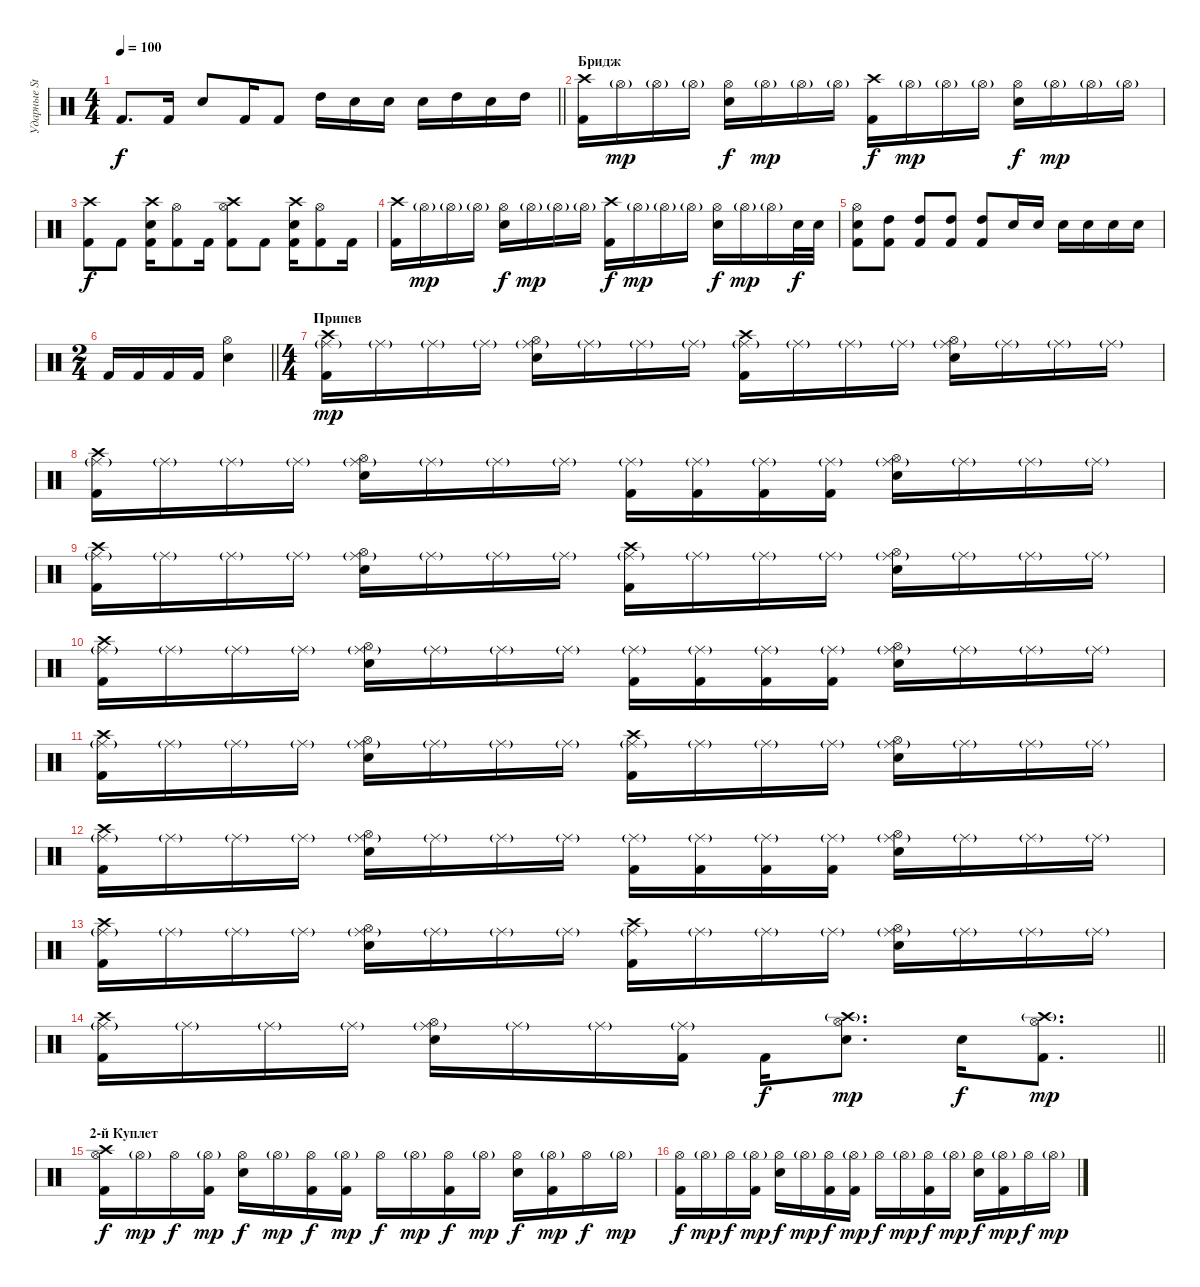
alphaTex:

\track ("Ударные Stewart" "Ударные St") {instrument percussion}
\staff {score}
\articulation defaults
\ts (4 4)
\tempo 100
\clef neutral
\barLineRight lightlight
\ks c "Kick (hit) 2".8{d dy f} "Kick (hit) 2".16 "Electric Snare (hit)".8 "Kick (hit) 2".16 "Kick (hit) 2".8 "High Tom (hit)".16 "Electric Snare (hit)".16 "Electric Snare (hit)".16 "Electric Snare (hit)".16 "High Tom (hit)".16 "Electric Snare (hit)".16 "High Tom (hit)".16
|
\section ("" "Бридж")
("Crash high (hit)" "Kick (hit) 2").16 "Hi-Hat (open)"{g}.16{dy mp} "Hi-Hat (open)"{g}.16 "Hi-Hat (open)"{g}.16 ("Hi-Hat (open)" "Electric Snare (hit)").16{dy f} "Hi-Hat (open)"{g}.16{dy mp} "Hi-Hat (open)"{g}.16 "Hi-Hat (open)"{g}.16 ("Crash high (hit)" "Kick (hit) 2").16{dy f} "Hi-Hat (open)"{g}.16{dy mp} "Hi-Hat (open)"{g}.16 "Hi-Hat (open)"{g}.16 ("Hi-Hat (open)" "Electric Snare (hit)").16{dy f} "Hi-Hat (open)"{g}.16{dy mp} "Hi-Hat (open)"{g}.16 "Hi-Hat (open)"{g}.16 |
("Crash high (hit)" "Kick (hit) 2").8{dy f} "Kick (hit) 2".8 ("Crash high (hit)" "Electric Snare (hit)" "Kick (hit) 2").16 ("Hi-Hat (open)" "Kick (hit) 2").8 "Kick (hit) 2".16 ("Crash high (hit)" "Hi-Hat (open)" "Kick (hit) 2").8 "Kick (hit) 2".8 ("Crash high (hit)" "Electric Snare (hit)" "Kick (hit) 2").16 ("Hi-Hat (open)" "Kick (hit) 2").8 "Kick (hit) 2".16 |
("Crash high (hit)" "Kick (hit) 2").16 "Hi-Hat (open)"{g}.16{dy mp} "Hi-Hat (open)"{g}.16 "Hi-Hat (open)"{g}.16 ("Hi-Hat (open)" "Electric Snare (hit)").16{dy f} "Hi-Hat (open)"{g}.16{dy mp} "Hi-Hat (open)"{g}.16 "Hi-Hat (open)"{g}.16 ("Crash high (hit)" "Kick (hit) 2").16{dy f} "Hi-Hat (open)"{g}.16{dy mp} "Hi-Hat (open)"{g}.16 "Hi-Hat (open)"{g}.16 ("Hi-Hat (open)" "Electric Snare (hit)").16{dy f} "Hi-Hat (open)"{g}.16{dy mp} "Hi-Hat (open)"{g}.16 "Electric Snare (hit)".32{dy f} "Electric Snare (hit)".32 |
("Hi-Hat (open)" "Electric Snare (hit)" "Kick (hit) 2").8 ("High Tom (hit)" "Kick (hit) 2").8 ("High Tom (hit)" "Kick (hit) 2").8 ("High Tom (hit)" "Kick (hit) 2").8 ("High Tom (hit)" "Kick (hit) 2").8 "Electric Snare (hit)".16 "Electric Snare (hit)".16 "Electric Snare (hit)".16 "Electric Snare (hit)".16 "Electric Snare (hit)".16 "Electric Snare (hit)".16 |
\ts (2 4)
\barLineRight lightlight "Kick (hit) 2".16 "Kick (hit) 2".16 "Kick (hit) 2".16 "Kick (hit) 2".16
("Hi-Hat (open)" "Electric Snare (hit)").4 |
\ts (4 4)
\section ("" "Припев")
("Crash high (hit)" "Ride (middle)"{g} "Kick (hit) 2").16{dy mp} "Ride (middle)"{g}.16 "Ride (middle)"{g}.16 "Ride (middle)"{g}.16 ("Ride (middle)"{g} "Hi-Hat (open)" "Electric Snare (hit)").16 "Ride (middle)"{g}.16 "Ride (middle)"{g}.16 "Ride (middle)"{g}.16 ("Crash high (hit)" "Ride (middle)"{g} "Kick (hit) 2").16 "Ride (middle)"{g}.16 "Ride (middle)"{g}.16 "Ride (middle)"{g}.16 ("Ride (middle)"{g} "Hi-Hat (open)" "Electric Snare (hit)").16 "Ride (middle)"{g}.16 "Ride (middle)"{g}.16 "Ride (middle)"{g}.16 |
("Crash high (hit)" "Ride (middle)"{g} "Kick (hit) 2").16 "Ride (middle)"{g}.16 "Ride (middle)"{g}.16 "Ride (middle)"{g}.16 ("Ride (middle)"{g} "Hi-Hat (open)" "Electric Snare (hit)").16 "Ride (middle)"{g}.16 "Ride (middle)"{g}.16 "Ride (middle)"{g}.16 ("Ride (middle)"{g} "Kick (hit) 2").16 ("Ride (middle)"{g} "Kick (hit) 2").16 ("Ride (middle)"{g} "Kick (hit) 2").16 ("Ride (middle)"{g} "Kick (hit) 2").16 ("Ride (middle)"{g} "Hi-Hat (open)" "Electric Snare (hit)").16 "Ride (middle)"{g}.16 "Ride (middle)"{g}.16 "Ride (middle)"{g}.16 |
("Crash high (hit)" "Ride (middle)"{g} "Kick (hit) 2").16 "Ride (middle)"{g}.16 "Ride (middle)"{g}.16 "Ride (middle)"{g}.16 ("Ride (middle)"{g} "Hi-Hat (open)" "Electric Snare (hit)").16 "Ride (middle)"{g}.16 "Ride (middle)"{g}.16 "Ride (middle)"{g}.16 ("Crash high (hit)" "Ride (middle)"{g} "Kick (hit) 2").16 "Ride (middle)"{g}.16 "Ride (middle)"{g}.16 "Ride (middle)"{g}.16 ("Ride (middle)"{g} "Hi-Hat (open)" "Electric Snare (hit)").16 "Ride (middle)"{g}.16 "Ride (middle)"{g}.16 "Ride (middle)"{g}.16 |
("Crash high (hit)" "Ride (middle)"{g} "Kick (hit) 2").16 "Ride (middle)"{g}.16 "Ride (middle)"{g}.16 "Ride (middle)"{g}.16 ("Ride (middle)"{g} "Hi-Hat (open)" "Electric Snare (hit)").16 "Ride (middle)"{g}.16 "Ride (middle)"{g}.16 "Ride (middle)"{g}.16 ("Ride (middle)"{g} "Kick (hit) 2").16 ("Ride (middle)"{g} "Kick (hit) 2").16 ("Ride (middle)"{g} "Kick (hit) 2").16 ("Ride (middle)"{g} "Kick (hit) 2").16 ("Ride (middle)"{g} "Hi-Hat (open)" "Electric Snare (hit)").16 "Ride (middle)"{g}.16 "Ride (middle)"{g}.16 "Ride (middle)"{g}.16 |
("Crash high (hit)" "Ride (middle)"{g} "Kick (hit) 2").16 "Ride (middle)"{g}.16 "Ride (middle)"{g}.16 "Ride (middle)"{g}.16 ("Ride (middle)"{g} "Hi-Hat (open)" "Electric Snare (hit)").16 "Ride (middle)"{g}.16 "Ride (middle)"{g}.16 "Ride (middle)"{g}.16 ("Crash high (hit)" "Ride (middle)"{g} "Kick (hit) 2").16 "Ride (middle)"{g}.16 "Ride (middle)"{g}.16 "Ride (middle)"{g}.16 ("Ride (middle)"{g} "Hi-Hat (open)" "Electric Snare (hit)").16 "Ride (middle)"{g}.16 "Ride (middle)"{g}.16 "Ride (middle)"{g}.16 |
("Crash high (hit)" "Ride (middle)"{g} "Kick (hit) 2").16 "Ride (middle)"{g}.16 "Ride (middle)"{g}.16 "Ride (middle)"{g}.16 ("Ride (middle)"{g} "Hi-Hat (open)" "Electric Snare (hit)").16 "Ride (middle)"{g}.16 "Ride (middle)"{g}.16 "Ride (middle)"{g}.16 ("Ride (middle)"{g} "Kick (hit) 2").16 ("Ride (middle)"{g} "Kick (hit) 2").16 ("Ride (middle)"{g} "Kick (hit) 2").16 ("Ride (middle)"{g} "Kick (hit) 2").16 ("Ride (middle)"{g} "Hi-Hat (open)" "Electric Snare (hit)").16 "Ride (middle)"{g}.16 "Ride (middle)"{g}.16 "Ride (middle)"{g}.16 |
("Crash high (hit)" "Ride (middle)"{g} "Kick (hit) 2").16 "Ride (middle)"{g}.16 "Ride (middle)"{g}.16 "Ride (middle)"{g}.16 ("Ride (middle)"{g} "Hi-Hat (open)" "Electric Snare (hit)").16 "Ride (middle)"{g}.16 "Ride (middle)"{g}.16 "Ride (middle)"{g}.16 ("Crash high (hit)" "Ride (middle)"{g} "Kick (hit) 2").16 "Ride (middle)"{g}.16 "Ride (middle)"{g}.16 "Ride (middle)"{g}.16 ("Ride (middle)"{g} "Hi-Hat (open)" "Electric Snare (hit)").16 "Ride (middle)"{g}.16 "Ride (middle)"{g}.16 "Ride (middle)"{g}.16 |
\barLineRight lightlight
("Crash high (hit)" "Ride (middle)"{g} "Kick (hit) 2").16 "Ride (middle)"{g}.16 "Ride (middle)"{g}.16 "Ride (middle)"{g}.16 ("Ride (middle)"{g} "Hi-Hat (open)" "Electric Snare (hit)").16 "Ride (middle)"{g}.16 "Ride (middle)"{g}.16 ("Ride (middle)"{g} "Kick (hit) 2").16 "Kick (hit) 2".16{dy f} ("Crash high (hit)"{g} "Hi-Hat (open)" "Electric Snare (hit)").8{d dy mp} "Electric Snare (hit)".16{dy f} ("Crash high (hit)"{g} "Hi-Hat (open)" "Kick (hit) 2").8{d dy mp} |
\section ("" "2-й Куплет")
("Crash high (hit)" "Hi-Hat (open)" "Kick (hit) 2").16{dy f} "Hi-Hat (open)"{g}.16{dy mp} "Hi-Hat (open)".16{dy f} ("Hi-Hat (open)"{g} "Kick (hit) 2").16{dy mp} ("Hi-Hat (open)" "Electric Snare (hit)").16{dy f} "Hi-Hat (open)"{g}.16{dy mp} ("Hi-Hat (open)" "Kick (hit) 2").16{dy f} ("Hi-Hat (open)"{g} "Kick (hit) 2").16{dy mp} "Hi-Hat (open)".16{dy f} "Hi-Hat (open)"{g}.16{dy mp} ("Hi-Hat (open)" "Kick (hit) 2").16{dy f} "Hi-Hat (open)"{g}.16{dy mp} ("Hi-Hat (open)" "Electric Snare (hit)").16{dy f} ("Hi-Hat (open)"{g} "Kick (hit) 2").16{dy mp} "Hi-Hat (open)".16{dy f} "Hi-Hat (open)"{g}.16{dy mp} |
("Hi-Hat (open)" "Kick (hit) 2").16{dy f} "Hi-Hat (open)"{g}.16{dy mp} "Hi-Hat (open)".16{dy f} ("Hi-Hat (open)"{g} "Kick (hit) 2").16{dy mp} ("Hi-Hat (open)" "Electric Snare (hit)").16{dy f} "Hi-Hat (open)"{g}.16{dy mp} ("Hi-Hat (open)" "Kick (hit) 2").16{dy f} ("Hi-Hat (open)"{g} "Kick (hit) 2").16{dy mp} "Hi-Hat (open)".16{dy f} "Hi-Hat (open)"{g}.16{dy mp} ("Hi-Hat (open)" "Kick (hit) 2").16{dy f} "Hi-Hat (open)"{g}.16{dy mp} ("Hi-Hat (open)" "Electric Snare (hit)").16{dy f} ("Hi-Hat (open)"{g} "Kick (hit) 2").16{dy mp} "Hi-Hat (open)".16{dy f} "Hi-Hat (open)"{g}.16{dy mp}
